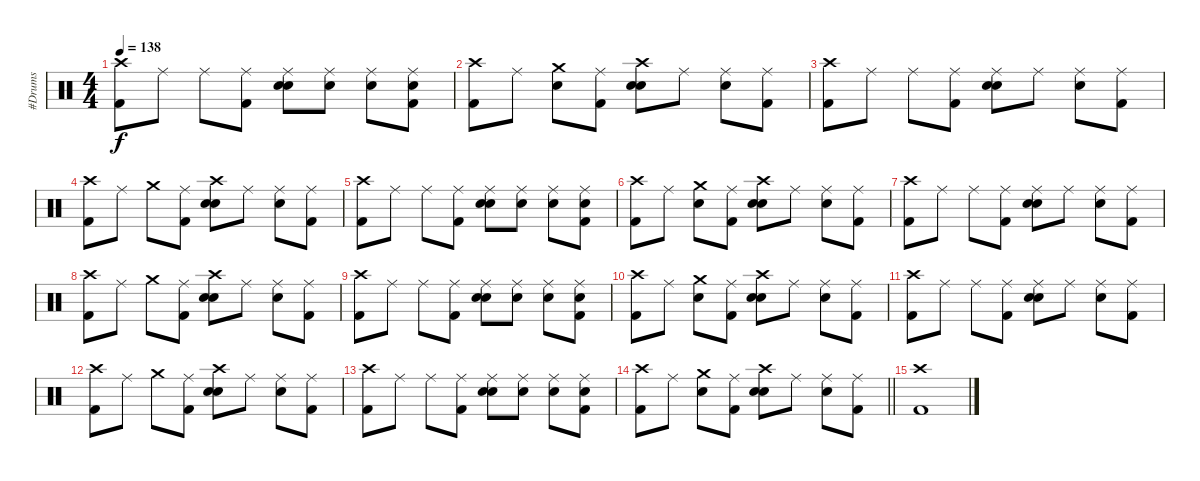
\track ("#Drums" "#Drums") {instrument percussion}
\staff {score}
\articulation defaults
\ts (4 4)
\tempo 138
\clef neutral
\ks c
("Crash high (hit)" "Kick (hit) 2").8{dy f} "Ride (middle)".8 "Ride (middle)".8 ("Ride (middle)" "Kick (hit) 2").8 ("Ride (middle)" "Snare (hit) 2" "Electric Snare (hit)").8 ("Ride (middle)" "Electric Snare (hit)").8 ("Ride (middle)" "Electric Snare (hit)").8 ("Ride (middle)" "Snare (hit) 2" "Kick (hit) 2").8 |
("Crash high (hit)" "Kick (hit) 2").8 "Ride (middle)".8 ("Crash medium (hit)" "Snare (hit) 2").8 ("Ride (middle)" "Kick (hit) 2").8 ("Crash high (hit)" "Snare (hit) 2" "Electric Snare (hit)").8 "Ride (middle)".8 ("Ride (middle)" "Electric Snare (hit)").8 ("Ride (middle)" "Kick (hit) 2").8 |
("Crash high (hit)" "Kick (hit) 2").8 "Ride (middle)".8 "Ride (middle)".8 ("Ride (middle)" "Kick (hit) 2").8 ("Ride (middle)" "Snare (hit) 2" "Electric Snare (hit)").8 "Ride (middle)".8 ("Ride (middle)" "Electric Snare (hit)").8 ("Ride (middle)" "Kick (hit) 2").8 |
("Crash high (hit)" "Kick (hit) 2").8 "Ride (middle)".8 "Crash medium (hit)".8 ("Ride (middle)" "Kick (hit) 2").8 ("Crash high (hit)" "Snare (hit) 2" "Electric Snare (hit)").8 "Ride (middle)".8 ("Ride (middle)" "Electric Snare (hit)").8 ("Ride (middle)" "Kick (hit) 2").8 |
("Crash high (hit)" "Kick (hit) 2").8 "Ride (middle)".8 "Ride (middle)".8 ("Ride (middle)" "Kick (hit) 2").8 ("Ride (middle)" "Snare (hit) 2" "Electric Snare (hit)").8 ("Ride (middle)" "Electric Snare (hit)").8 ("Ride (middle)" "Electric Snare (hit)").8 ("Ride (middle)" "Snare (hit) 2" "Kick (hit) 2").8 |
("Crash high (hit)" "Kick (hit) 2").8 "Ride (middle)".8 ("Crash medium (hit)" "Snare (hit) 2").8 ("Ride (middle)" "Kick (hit) 2").8 ("Crash high (hit)" "Snare (hit) 2" "Electric Snare (hit)").8 "Ride (middle)".8 ("Ride (middle)" "Electric Snare (hit)").8 ("Ride (middle)" "Kick (hit) 2").8 |
("Crash high (hit)" "Kick (hit) 2").8 "Ride (middle)".8 "Ride (middle)".8 ("Ride (middle)" "Kick (hit) 2").8 ("Ride (middle)" "Snare (hit) 2" "Electric Snare (hit)").8 "Ride (middle)".8 ("Ride (middle)" "Electric Snare (hit)").8 ("Ride (middle)" "Kick (hit) 2").8 |
("Crash high (hit)" "Kick (hit) 2").8 "Ride (middle)".8 "Crash medium (hit)".8 ("Ride (middle)" "Kick (hit) 2").8 ("Crash high (hit)" "Snare (hit) 2" "Electric Snare (hit)").8 "Ride (middle)".8 ("Ride (middle)" "Electric Snare (hit)").8 ("Ride (middle)" "Kick (hit) 2").8 |
("Crash high (hit)" "Kick (hit) 2").8 "Ride (middle)".8 "Ride (middle)".8 ("Ride (middle)" "Kick (hit) 2").8 ("Ride (middle)" "Snare (hit) 2" "Electric Snare (hit)").8 ("Ride (middle)" "Electric Snare (hit)").8 ("Ride (middle)" "Electric Snare (hit)").8 ("Ride (middle)" "Snare (hit) 2" "Kick (hit) 2").8 |
("Crash high (hit)" "Kick (hit) 2").8 "Ride (middle)".8 ("Crash medium (hit)" "Snare (hit) 2").8 ("Ride (middle)" "Kick (hit) 2").8 ("Crash high (hit)" "Snare (hit) 2" "Electric Snare (hit)").8 "Ride (middle)".8 ("Ride (middle)" "Electric Snare (hit)").8 ("Ride (middle)" "Kick (hit) 2").8 |
("Crash high (hit)" "Kick (hit) 2").8 "Ride (middle)".8 "Ride (middle)".8 ("Ride (middle)" "Kick (hit) 2").8 ("Ride (middle)" "Snare (hit) 2" "Electric Snare (hit)").8 "Ride (middle)".8 ("Ride (middle)" "Electric Snare (hit)").8 ("Ride (middle)" "Kick (hit) 2").8 |
("Crash high (hit)" "Kick (hit) 2").8 "Ride (middle)".8 "Crash medium (hit)".8 ("Ride (middle)" "Kick (hit) 2").8 ("Crash high (hit)" "Snare (hit) 2" "Electric Snare (hit)").8 "Ride (middle)".8 ("Ride (middle)" "Electric Snare (hit)").8 ("Ride (middle)" "Kick (hit) 2").8 |
("Crash high (hit)" "Kick (hit) 2").8 "Ride (middle)".8 "Ride (middle)".8 ("Ride (middle)" "Kick (hit) 2").8 ("Ride (middle)" "Snare (hit) 2" "Electric Snare (hit)").8 ("Ride (middle)" "Electric Snare (hit)").8 ("Ride (middle)" "Electric Snare (hit)").8 ("Ride (middle)" "Snare (hit) 2" "Kick (hit) 2").8 |
\barLineRight lightlight
("Crash high (hit)" "Kick (hit) 2").8 "Ride (middle)".8 ("Crash medium (hit)" "Snare (hit) 2").8 ("Ride (middle)" "Kick (hit) 2").8 ("Crash high (hit)" "Snare (hit) 2" "Electric Snare (hit)").8 "Ride (middle)".8 ("Ride (middle)" "Electric Snare (hit)").8 ("Ride (middle)" "Kick (hit) 2").8 |
("Crash high (hit)" "Kick (hit) 2").1
